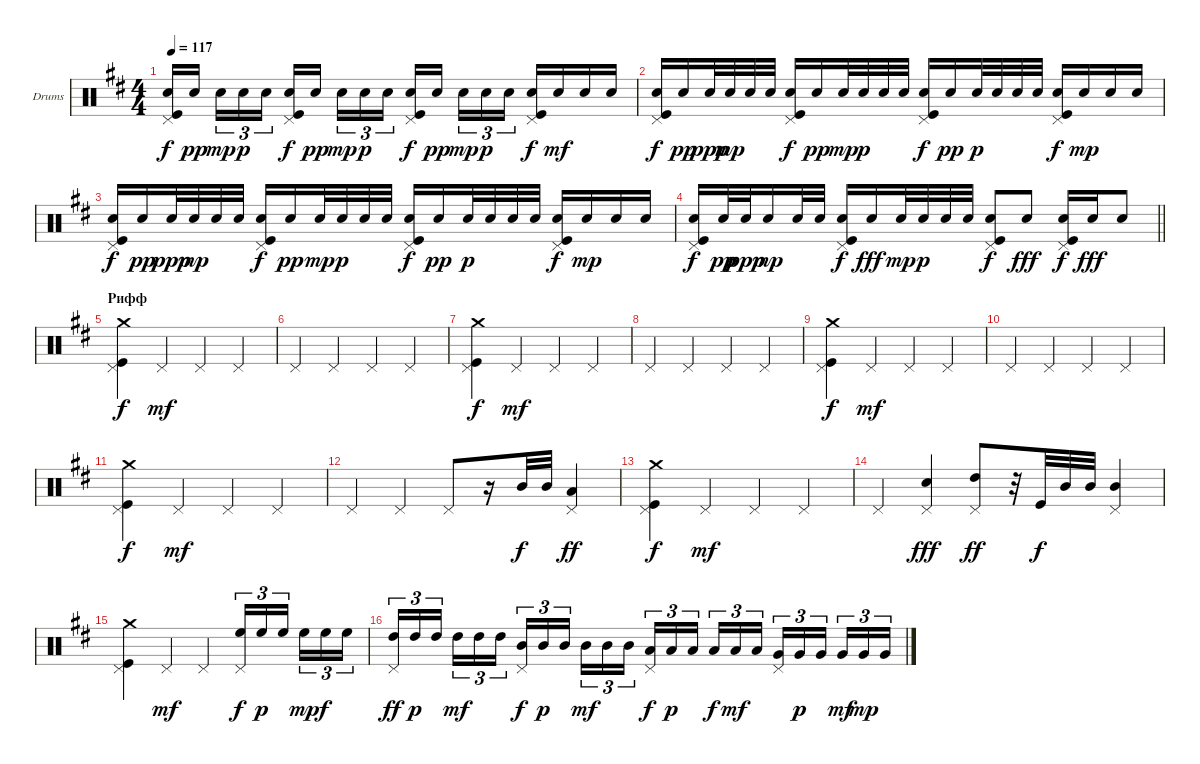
\bracketExtendMode groupsimilarinstruments
\firstSystemTrackNameOrientation horizontal
\otherSystemsTrackNameOrientation horizontal
\track ("Барабаны" "Drums") {instrument percussion}
\staff {score}
\articulation defaults
\ts (4 4)
\tempo 117
\clef neutral
\ks d
("Kick (hit)" "Pedal Hi-Hat (hit)" "Snare (hit) 2").16{dy f} "Snare (hit) 2".16{dy pp} "Snare (hit) 2".16{tu (3 2) dy mp} "Snare (hit) 2".16{tu (3 2) dy p} "Snare (hit) 2".16{tu (3 2)} ("Kick (hit)" "Pedal Hi-Hat (hit)" "Snare (hit) 2").16{dy f} "Snare (hit) 2".16{dy pp} "Snare (hit) 2".16{tu (3 2) dy mp} "Snare (hit) 2".16{tu (3 2) dy p} "Snare (hit) 2".16{tu (3 2)} ("Kick (hit)" "Pedal Hi-Hat (hit)" "Snare (hit) 2").16{dy f} "Snare (hit) 2".16{dy pp} "Snare (hit) 2".16{tu (3 2) dy mp} "Snare (hit) 2".16{tu (3 2) dy p} "Snare (hit) 2".16{tu (3 2)} ("Kick (hit)" "Pedal Hi-Hat (hit)" "Snare (hit) 2").16{dy f} "Snare (hit) 2".16{dy mf} "Snare (hit) 2".16 "Snare (hit) 2".16 |
("Kick (hit)" "Pedal Hi-Hat (hit)" "Snare (hit) 2").16{dy f} "Snare (hit) 2".16{dy pp} "Snare (hit) 2".32{dy ppp} "Snare (hit) 2".32{dy mp} "Snare (hit) 2".32 "Snare (hit) 2".32 ("Kick (hit)" "Pedal Hi-Hat (hit)" "Snare (hit) 2").16{dy f} "Snare (hit) 2".16{dy pp} "Snare (hit) 2".32{dy mp} "Snare (hit) 2".32{dy p} "Snare (hit) 2".32 "Snare (hit) 2".32 ("Kick (hit)" "Pedal Hi-Hat (hit)" "Snare (hit) 2").16{dy f} "Snare (hit) 2".16{dy pp} "Snare (hit) 2".32{dy p} "Snare (hit) 2".32 "Snare (hit) 2".32 "Snare (hit) 2".32 ("Kick (hit)" "Pedal Hi-Hat (hit)" "Snare (hit) 2").16{dy f} "Snare (hit) 2".16{dy mp} "Snare (hit) 2".16 "Snare (hit) 2".16 |
("Kick (hit)" "Pedal Hi-Hat (hit)" "Snare (hit) 2").16{dy f} "Snare (hit) 2".16{dy pp} "Snare (hit) 2".32{dy ppp} "Snare (hit) 2".32{dy mp} "Snare (hit) 2".32 "Snare (hit) 2".32 ("Kick (hit)" "Pedal Hi-Hat (hit)" "Snare (hit) 2").16{dy f} "Snare (hit) 2".16{dy pp} "Snare (hit) 2".32{dy mp} "Snare (hit) 2".32{dy p} "Snare (hit) 2".32 "Snare (hit) 2".32 ("Kick (hit)" "Pedal Hi-Hat (hit)" "Snare (hit) 2").16{dy f} "Snare (hit) 2".16{dy pp} "Snare (hit) 2".32{dy p} "Snare (hit) 2".32 "Snare (hit) 2".32 "Snare (hit) 2".32 ("Kick (hit)" "Pedal Hi-Hat (hit)" "Snare (hit) 2").16{dy f} "Snare (hit) 2".16{dy mp} "Snare (hit) 2".16 "Snare (hit) 2".16 |
\barLineRight lightlight
("Kick (hit)" "Pedal Hi-Hat (hit)" "Snare (hit) 2").16{dy f} "Snare (hit) 2".32{dy pp} "Snare (hit) 2".32{dy ppp} "Snare (hit) 2".16{dy mp} "Snare (hit) 2".32 "Snare (hit) 2".32 ("Kick (hit)" "Pedal Hi-Hat (hit)" "Snare (hit) 2").16{dy f} "Snare (hit) 2".16{dy fff} "Snare (hit) 2".32{dy mp} "Snare (hit) 2".32{dy p} "Snare (hit) 2".32 "Snare (hit) 2".32 ("Kick (hit)" "Pedal Hi-Hat (hit)" "Snare (hit) 2").8{dy f} "Snare (hit) 2".8{dy fff} ("Kick (hit)" "Pedal Hi-Hat (hit)" "Snare (hit) 2").16{dy f} "Snare (hit) 2".16{dy fff} "Snare (hit) 2".8 |
\section ("" "Рифф")
("Kick (hit)" "Crash medium (hit)" "Pedal Hi-Hat (hit)").4{dy f} "Pedal Hi-Hat (hit)".4{dy mf} "Pedal Hi-Hat (hit)".4 "Pedal Hi-Hat (hit)".4 |
"Pedal Hi-Hat (hit)".4 "Pedal Hi-Hat (hit)".4 "Pedal Hi-Hat (hit)".4 "Pedal Hi-Hat (hit)".4 |
("Kick (hit)" "Crash medium (hit)" "Pedal Hi-Hat (hit)").4{dy f} "Pedal Hi-Hat (hit)".4{dy mf} "Pedal Hi-Hat (hit)".4 "Pedal Hi-Hat (hit)".4 |
"Pedal Hi-Hat (hit)".4 "Pedal Hi-Hat (hit)".4 "Pedal Hi-Hat (hit)".4 "Pedal Hi-Hat (hit)".4 |
("Kick (hit)" "Crash medium (hit)" "Pedal Hi-Hat (hit)").4{dy f} "Pedal Hi-Hat (hit)".4{dy mf} "Pedal Hi-Hat (hit)".4 "Pedal Hi-Hat (hit)".4 |
"Pedal Hi-Hat (hit)".4 "Pedal Hi-Hat (hit)".4 "Pedal Hi-Hat (hit)".4 "Pedal Hi-Hat (hit)".4 |
("Kick (hit)" "Crash medium (hit)" "Pedal Hi-Hat (hit)").4{dy f} "Pedal Hi-Hat (hit)".4{dy mf} "Pedal Hi-Hat (hit)".4 "Pedal Hi-Hat (hit)".4 |
"Pedal Hi-Hat (hit)".4 "Pedal Hi-Hat (hit)".4 "Pedal Hi-Hat (hit)".8 r.16 "Mid Tom (hit)".32{dy f} "Mid Tom (hit)".32 ("Low Tom (hit)" "Pedal Hi-Hat (hit)").4{dy ff} |
("Kick (hit)" "Crash medium (hit)" "Pedal Hi-Hat (hit)").4{dy f} "Pedal Hi-Hat (hit)".4{dy mf} "Pedal Hi-Hat (hit)".4 "Pedal Hi-Hat (hit)".4 |
"Pedal Hi-Hat (hit)".4 ("Snare (hit) 2" "Pedal Hi-Hat (hit)").4{dy fff} ("High Tom (hit)" "Pedal Hi-Hat (hit)").8{dy ff} r.32 "Kick (hit)".32{dy f} "Mid Tom (hit)".32 "Mid Tom (hit)".32 ("Mid Tom (hit)" "Pedal Hi-Hat (hit)").4 |
("Kick (hit)" "Crash medium (hit)" "Pedal Hi-Hat (hit)").4 "Pedal Hi-Hat (hit)".4{dy mf} "Pedal Hi-Hat (hit)".4 ("High Floor Tom (hit)" "Pedal Hi-Hat (hit)").16{tu (3 2) dy f} "High Floor Tom (hit)".16{tu (3 2) dy p} "High Floor Tom (hit)".16{tu (3 2)} "High Floor Tom (hit)".16{tu (3 2) dy mp} "High Floor Tom (hit)".16{tu (3 2) dy f} "High Floor Tom (hit)".16{tu (3 2)} |
("High Tom (hit)" "Pedal Hi-Hat (hit)").16{tu (3 2) dy ff} "High Tom (hit)".16{tu (3 2) dy p} "High Tom (hit)".16{tu (3 2)} "High Tom (hit)".16{tu (3 2) dy mf} "High Tom (hit)".16{tu (3 2)} "High Tom (hit)".16{tu (3 2)} ("Mid Tom (hit)" "Pedal Hi-Hat (hit)").16{tu (3 2) dy f} "Mid Tom (hit)".16{tu (3 2) dy p} "Mid Tom (hit)".16{tu (3 2)} "Mid Tom (hit)".16{tu (3 2) dy mf} "Mid Tom (hit)".16{tu (3 2)} "Mid Tom (hit)".16{tu (3 2)} ("Low Tom (hit)" "Pedal Hi-Hat (hit)").16{tu (3 2) dy f} "Low Tom (hit)".16{tu (3 2) dy p} "Low Tom (hit)".16{tu (3 2)} "Low Tom (hit)".16{tu (3 2) dy f} "Low Tom (hit)".16{tu (3 2) dy mf} "Low Tom (hit)".16{tu (3 2)} ("Very Low Tom (hit)" "Pedal Hi-Hat (hit)").16{tu (3 2)} "Very Low Tom (hit)".16{tu (3 2) dy p} "Very Low Tom (hit)".16{tu (3 2)} "Very Low Tom (hit)".16{tu (3 2) dy mf} "Very Low Tom (hit)".16{tu (3 2) dy mp} "Very Low Tom (hit)".16{tu (3 2)}
